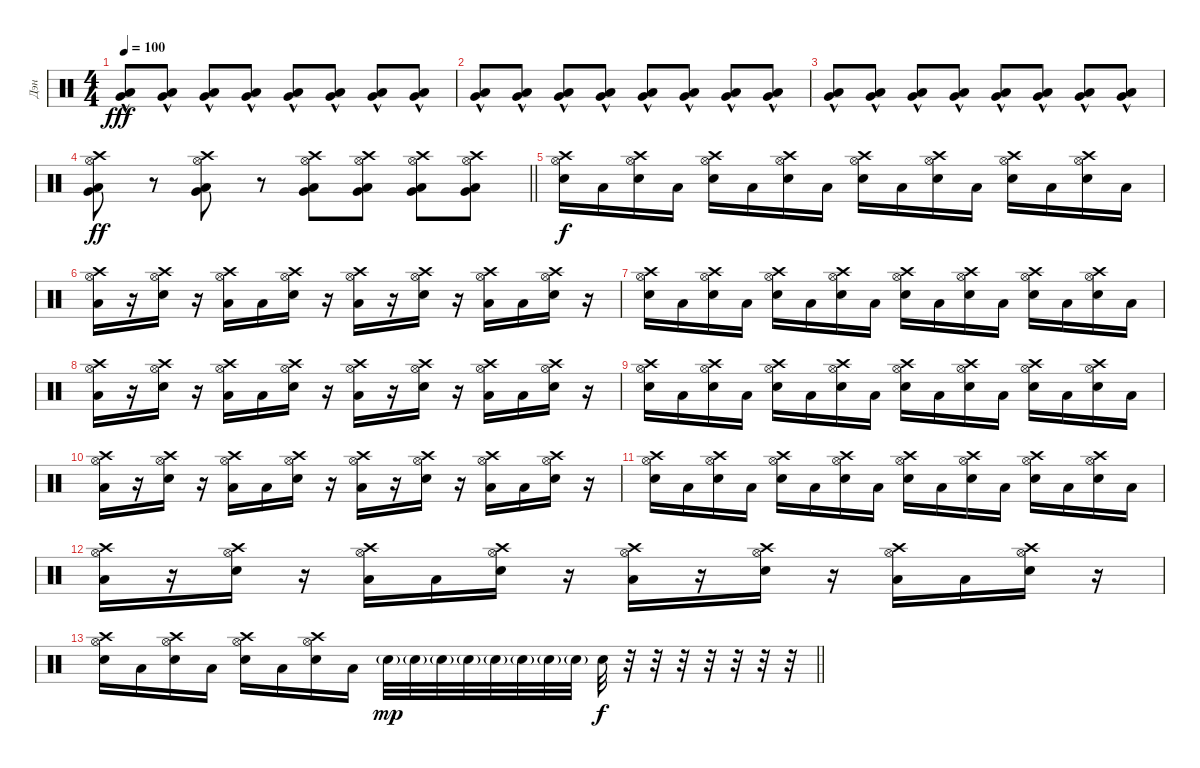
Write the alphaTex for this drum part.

\track ("Дэн" "Дэн") {instrument percussion}
\staff {score}
\articulation defaults
\ts (4 4)
\tempo 100
\clef neutral
\ks c
("Low Floor Tom (hit)"{hac} "Very Low Tom (hit)"{hac}).8{dy fff} ("Low Floor Tom (hit)"{hac} "Very Low Tom (hit)"{hac}).8 ("Low Floor Tom (hit)"{hac} "Very Low Tom (hit)"{hac}).8 ("Low Floor Tom (hit)"{hac} "Very Low Tom (hit)"{hac}).8 ("Low Floor Tom (hit)"{hac} "Very Low Tom (hit)"{hac}).8 ("Low Floor Tom (hit)"{hac} "Very Low Tom (hit)"{hac}).8 ("Low Floor Tom (hit)"{hac} "Very Low Tom (hit)"{hac}).8 ("Low Floor Tom (hit)"{hac} "Very Low Tom (hit)"{hac}).8 |
("Low Floor Tom (hit)"{hac} "Very Low Tom (hit)"{hac}).8 ("Low Floor Tom (hit)"{hac} "Very Low Tom (hit)"{hac}).8 ("Low Floor Tom (hit)"{hac} "Very Low Tom (hit)"{hac}).8 ("Low Floor Tom (hit)"{hac} "Very Low Tom (hit)"{hac}).8 ("Low Floor Tom (hit)"{hac} "Very Low Tom (hit)"{hac}).8 ("Low Floor Tom (hit)"{hac} "Very Low Tom (hit)"{hac}).8 ("Low Floor Tom (hit)"{hac} "Very Low Tom (hit)"{hac}).8 ("Low Floor Tom (hit)"{hac} "Very Low Tom (hit)"{hac}).8 |
("Low Floor Tom (hit)"{hac} "Very Low Tom (hit)"{hac}).8 ("Low Floor Tom (hit)"{hac} "Very Low Tom (hit)"{hac}).8 ("Low Floor Tom (hit)"{hac} "Very Low Tom (hit)"{hac}).8 ("Low Floor Tom (hit)"{hac} "Very Low Tom (hit)"{hac}).8 ("Low Floor Tom (hit)"{hac} "Very Low Tom (hit)"{hac}).8 ("Low Floor Tom (hit)"{hac} "Very Low Tom (hit)"{hac}).8 ("Low Floor Tom (hit)"{hac} "Very Low Tom (hit)"{hac}).8 ("Low Floor Tom (hit)"{hac} "Very Low Tom (hit)"{hac}).8 |
\barLineRight lightlight
("Low Floor Tom (hit)" "Very Low Tom (hit)" "Crash high (hit)" "Hi-Hat (open)").8{dy ff} r.8 ("Low Floor Tom (hit)" "Very Low Tom (hit)" "Crash high (hit)" "Hi-Hat (open)").8 r.8 ("Low Floor Tom (hit)" "Very Low Tom (hit)" "Crash high (hit)" "Hi-Hat (open)").8 ("Low Floor Tom (hit)" "Very Low Tom (hit)" "Crash high (hit)" "Hi-Hat (open)").8 ("Low Floor Tom (hit)" "Very Low Tom (hit)" "Crash high (hit)" "Hi-Hat (open)").8 ("Low Floor Tom (hit)" "Very Low Tom (hit)" "Crash high (hit)" "Hi-Hat (open)").8 |
("Hi-Hat (open)" "Electric Snare (hit)" "Crash high (hit)").16{dy f} "Low Floor Tom (hit)".16 ("Hi-Hat (open)" "Electric Snare (hit)" "Crash high (hit)").16 "Low Floor Tom (hit)".16 ("Hi-Hat (open)" "Electric Snare (hit)" "Crash high (hit)").16 "Low Floor Tom (hit)".16 ("Hi-Hat (open)" "Electric Snare (hit)" "Crash high (hit)").16 "Low Floor Tom (hit)".16 ("Hi-Hat (open)" "Electric Snare (hit)" "Crash high (hit)").16 "Low Floor Tom (hit)".16 ("Hi-Hat (open)" "Electric Snare (hit)" "Crash high (hit)").16 "Low Floor Tom (hit)".16 ("Hi-Hat (open)" "Electric Snare (hit)" "Crash high (hit)").16 "Low Floor Tom (hit)".16 ("Hi-Hat (open)" "Electric Snare (hit)" "Crash high (hit)").16 "Low Floor Tom (hit)".16 |
("Hi-Hat (open)" "Crash high (hit)" "Low Floor Tom (hit)").16 r.16 ("Hi-Hat (open)" "Electric Snare (hit)" "Crash high (hit)").16 r.16 ("Hi-Hat (open)" "Low Floor Tom (hit)" "Crash high (hit)").16 "Low Floor Tom (hit)".16 ("Hi-Hat (open)" "Electric Snare (hit)" "Crash high (hit)").16 r.16 ("Hi-Hat (open)" "Crash high (hit)" "Low Floor Tom (hit)").16 r.16 ("Hi-Hat (open)" "Electric Snare (hit)" "Crash high (hit)").16 r.16 ("Hi-Hat (open)" "Low Floor Tom (hit)" "Crash high (hit)").16 "Low Floor Tom (hit)".16 ("Hi-Hat (open)" "Electric Snare (hit)" "Crash high (hit)").16 r.16 |
("Hi-Hat (open)" "Electric Snare (hit)" "Crash high (hit)").16 "Low Floor Tom (hit)".16 ("Hi-Hat (open)" "Electric Snare (hit)" "Crash high (hit)").16 "Low Floor Tom (hit)".16 ("Hi-Hat (open)" "Electric Snare (hit)" "Crash high (hit)").16 "Low Floor Tom (hit)".16 ("Hi-Hat (open)" "Electric Snare (hit)" "Crash high (hit)").16 "Low Floor Tom (hit)".16 ("Hi-Hat (open)" "Electric Snare (hit)" "Crash high (hit)").16 "Low Floor Tom (hit)".16 ("Hi-Hat (open)" "Electric Snare (hit)" "Crash high (hit)").16 "Low Floor Tom (hit)".16 ("Hi-Hat (open)" "Electric Snare (hit)" "Crash high (hit)").16 "Low Floor Tom (hit)".16 ("Hi-Hat (open)" "Electric Snare (hit)" "Crash high (hit)").16 "Low Floor Tom (hit)".16 |
("Hi-Hat (open)" "Crash high (hit)" "Low Floor Tom (hit)").16 r.16 ("Hi-Hat (open)" "Electric Snare (hit)" "Crash high (hit)").16 r.16 ("Hi-Hat (open)" "Low Floor Tom (hit)" "Crash high (hit)").16 "Low Floor Tom (hit)".16 ("Hi-Hat (open)" "Electric Snare (hit)" "Crash high (hit)").16 r.16 ("Hi-Hat (open)" "Crash high (hit)" "Low Floor Tom (hit)").16 r.16 ("Hi-Hat (open)" "Electric Snare (hit)" "Crash high (hit)").16 r.16 ("Hi-Hat (open)" "Low Floor Tom (hit)" "Crash high (hit)").16 "Low Floor Tom (hit)".16 ("Hi-Hat (open)" "Electric Snare (hit)" "Crash high (hit)").16 r.16 |
("Hi-Hat (open)" "Electric Snare (hit)" "Crash high (hit)").16 "Low Floor Tom (hit)".16 ("Hi-Hat (open)" "Electric Snare (hit)" "Crash high (hit)").16 "Low Floor Tom (hit)".16 ("Hi-Hat (open)" "Electric Snare (hit)" "Crash high (hit)").16 "Low Floor Tom (hit)".16 ("Hi-Hat (open)" "Electric Snare (hit)" "Crash high (hit)").16 "Low Floor Tom (hit)".16 ("Hi-Hat (open)" "Electric Snare (hit)" "Crash high (hit)").16 "Low Floor Tom (hit)".16 ("Hi-Hat (open)" "Electric Snare (hit)" "Crash high (hit)").16 "Low Floor Tom (hit)".16 ("Hi-Hat (open)" "Electric Snare (hit)" "Crash high (hit)").16 "Low Floor Tom (hit)".16 ("Hi-Hat (open)" "Electric Snare (hit)" "Crash high (hit)").16 "Low Floor Tom (hit)".16 |
("Hi-Hat (open)" "Crash high (hit)" "Low Floor Tom (hit)").16 r.16 ("Hi-Hat (open)" "Electric Snare (hit)" "Crash high (hit)").16 r.16 ("Hi-Hat (open)" "Low Floor Tom (hit)" "Crash high (hit)").16 "Low Floor Tom (hit)".16 ("Hi-Hat (open)" "Electric Snare (hit)" "Crash high (hit)").16 r.16 ("Hi-Hat (open)" "Crash high (hit)" "Low Floor Tom (hit)").16 r.16 ("Hi-Hat (open)" "Electric Snare (hit)" "Crash high (hit)").16 r.16 ("Hi-Hat (open)" "Low Floor Tom (hit)" "Crash high (hit)").16 "Low Floor Tom (hit)".16 ("Hi-Hat (open)" "Electric Snare (hit)" "Crash high (hit)").16 r.16 |
("Hi-Hat (open)" "Electric Snare (hit)" "Crash high (hit)").16 "Low Floor Tom (hit)".16 ("Hi-Hat (open)" "Electric Snare (hit)" "Crash high (hit)").16 "Low Floor Tom (hit)".16 ("Hi-Hat (open)" "Electric Snare (hit)" "Crash high (hit)").16 "Low Floor Tom (hit)".16 ("Hi-Hat (open)" "Electric Snare (hit)" "Crash high (hit)").16 "Low Floor Tom (hit)".16 ("Hi-Hat (open)" "Electric Snare (hit)" "Crash high (hit)").16 "Low Floor Tom (hit)".16 ("Hi-Hat (open)" "Electric Snare (hit)" "Crash high (hit)").16 "Low Floor Tom (hit)".16 ("Hi-Hat (open)" "Electric Snare (hit)" "Crash high (hit)").16 "Low Floor Tom (hit)".16 ("Hi-Hat (open)" "Electric Snare (hit)" "Crash high (hit)").16 "Low Floor Tom (hit)".16 |
("Hi-Hat (open)" "Crash high (hit)" "Low Floor Tom (hit)").16 r.16 ("Hi-Hat (open)" "Electric Snare (hit)" "Crash high (hit)").16 r.16 ("Hi-Hat (open)" "Low Floor Tom (hit)" "Crash high (hit)").16 "Low Floor Tom (hit)".16 ("Hi-Hat (open)" "Electric Snare (hit)" "Crash high (hit)").16 r.16 ("Hi-Hat (open)" "Crash high (hit)" "Low Floor Tom (hit)").16 r.16 ("Hi-Hat (open)" "Electric Snare (hit)" "Crash high (hit)").16 r.16 ("Hi-Hat (open)" "Low Floor Tom (hit)" "Crash high (hit)").16 "Low Floor Tom (hit)".16 ("Hi-Hat (open)" "Electric Snare (hit)" "Crash high (hit)").16 r.16 |
\barLineRight lightlight
("Hi-Hat (open)" "Electric Snare (hit)" "Crash high (hit)").16 "Low Floor Tom (hit)".16 ("Hi-Hat (open)" "Electric Snare (hit)" "Crash high (hit)").16 "Low Floor Tom (hit)".16 ("Hi-Hat (open)" "Electric Snare (hit)" "Crash high (hit)").16 "Low Floor Tom (hit)".16 ("Hi-Hat (open)" "Electric Snare (hit)" "Crash high (hit)").16 "Low Floor Tom (hit)".16 "Electric Snare (hit)"{g}.32{dy mp} "Electric Snare (hit)"{g}.32 "Electric Snare (hit)"{g}.32 "Electric Snare (hit)"{g}.32 "Electric Snare (hit)"{g}.32 "Electric Snare (hit)"{g}.32 "Electric Snare (hit)"{g}.32 "Electric Snare (hit)"{g}.32 "Electric Snare (hit)".32{dy f} r.32 r.32 r.32 r.32 r.32 r.32 r.32
